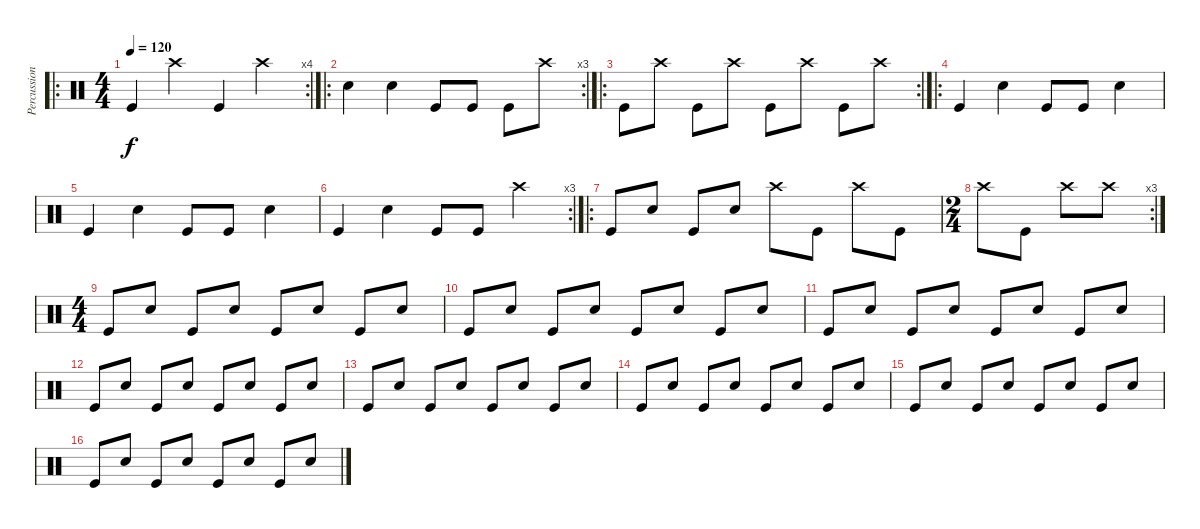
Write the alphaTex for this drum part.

\track ("Percussion" "Percussion") {instrument percussion}
\staff {score}
\articulation defaults
\ro
\rc 4
\ts (4 4)
\tempo 120
\clef neutral
\ks c "Kick (hit)".4{dy f} "Crash high (hit)".4 "Kick (hit)".4 "Crash high (hit)".4
|
\ro
\rc 3 "Snare (hit) 2".4 "Snare (hit) 2".4 "Kick (hit)".8 "Kick (hit)".8 "Kick (hit)".8 "Crash high (hit)".8
|
\ro
\rc 2 "Kick (hit)".8 "Crash high (hit)".8 "Kick (hit)".8 "Crash high (hit)".8 "Kick (hit)".8 "Crash high (hit)".8 "Kick (hit)".8 "Crash high (hit)".8
|
\ro "Kick (hit)".4 "Snare (hit) 2".4 "Kick (hit)".8 "Kick (hit)".8 "Snare (hit) 2".4
|
"Kick (hit)".4 "Snare (hit) 2".4 "Kick (hit)".8 "Kick (hit)".8 "Snare (hit) 2".4 |
\rc 3 "Kick (hit)".4 "Snare (hit) 2".4 "Kick (hit)".8 "Kick (hit)".8 "Crash high (hit)".4
|
\ro "Kick (hit)".8 "Snare (hit) 2".8 "Kick (hit)".8 "Snare (hit) 2".8 "Crash high (hit)".8 "Kick (hit)".8 "Crash high (hit)".8 "Kick (hit)".8
|
\rc 3
\ts (2 4)
"Crash high (hit)".8 "Kick (hit)".8 "Crash high (hit)".8 "Crash high (hit)".8 |
\ts (4 4)
"Kick (hit)".8 "Snare (hit) 2".8 "Kick (hit)".8 "Snare (hit) 2".8 "Kick (hit)".8 "Snare (hit) 2".8 "Kick (hit)".8 "Snare (hit) 2".8 |
"Kick (hit)".8 "Snare (hit) 2".8 "Kick (hit)".8 "Snare (hit) 2".8 "Kick (hit)".8 "Snare (hit) 2".8 "Kick (hit)".8 "Snare (hit) 2".8 |
"Kick (hit)".8 "Snare (hit) 2".8 "Kick (hit)".8 "Snare (hit) 2".8 "Kick (hit)".8 "Snare (hit) 2".8 "Kick (hit)".8 "Snare (hit) 2".8 |
"Kick (hit)".8 "Snare (hit) 2".8 "Kick (hit)".8 "Snare (hit) 2".8 "Kick (hit)".8 "Snare (hit) 2".8 "Kick (hit)".8 "Snare (hit) 2".8 |
"Kick (hit)".8 "Snare (hit) 2".8 "Kick (hit)".8 "Snare (hit) 2".8 "Kick (hit)".8 "Snare (hit) 2".8 "Kick (hit)".8 "Snare (hit) 2".8 |
"Kick (hit)".8 "Snare (hit) 2".8 "Kick (hit)".8 "Snare (hit) 2".8 "Kick (hit)".8 "Snare (hit) 2".8 "Kick (hit)".8 "Snare (hit) 2".8 |
"Kick (hit)".8 "Snare (hit) 2".8 "Kick (hit)".8 "Snare (hit) 2".8 "Kick (hit)".8 "Snare (hit) 2".8 "Kick (hit)".8 "Snare (hit) 2".8 |
"Kick (hit)".8 "Snare (hit) 2".8 "Kick (hit)".8 "Snare (hit) 2".8 "Kick (hit)".8 "Snare (hit) 2".8 "Kick (hit)".8 "Snare (hit) 2".8
